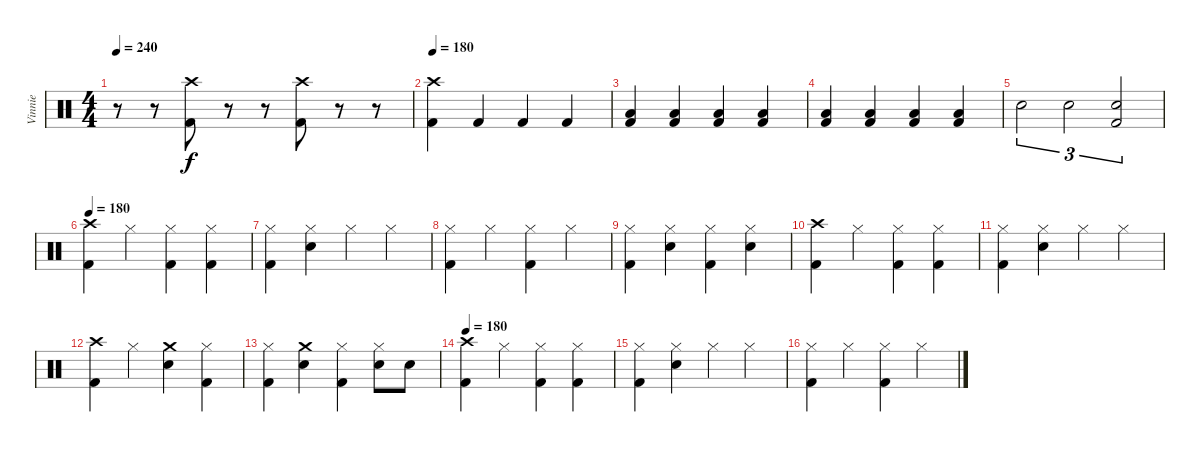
\track ("Vinnie" "Vinnie") {instrument percussion}
\staff {score}
\articulation defaults
\ts (4 4)
\tempo 240
\clef neutral
\ks c
r.8{dy f} r.8 ("Crash high (hit)" "Kick (hit) 2").8 r.8 r.8 ("Crash high (hit)" "Kick (hit) 2").8 r.8 r.8 |
\tempo 180
("Crash high (hit)" "Kick (hit) 2").4 "Kick (hit) 2".4 "Kick (hit) 2".4 "Kick (hit) 2".4 |
("Low Floor Tom (hit)" "Kick (hit) 2").4 ("Low Floor Tom (hit)" "Kick (hit) 2").4 ("Low Floor Tom (hit)" "Kick (hit) 2").4 ("Low Floor Tom (hit)" "Kick (hit) 2").4 |
("Low Floor Tom (hit)" "Kick (hit) 2").4 ("Low Floor Tom (hit)" "Kick (hit) 2").4 ("Low Floor Tom (hit)" "Kick (hit) 2").4 ("Low Floor Tom (hit)" "Kick (hit) 2").4 |
"Electric Snare (hit)".2{tu (3 2)} "Electric Snare (hit)".2{tu (3 2)} ("Electric Snare (hit)" "Kick (hit) 2").2{tu (3 2)} |
\tempo 180
("Crash high (hit)" "Kick (hit) 2").4 "Hi-Hat (closed)".4 ("Hi-Hat (closed)" "Kick (hit) 2").4 ("Hi-Hat (closed)" "Kick (hit) 2").4 |
("Hi-Hat (closed)" "Kick (hit) 2").4 ("Hi-Hat (closed)" "Electric Snare (hit)").4 "Hi-Hat (closed)".4 "Hi-Hat (closed)".4 |
("Hi-Hat (closed)" "Kick (hit) 2").4 "Hi-Hat (closed)".4 ("Hi-Hat (closed)" "Kick (hit) 2").4 "Hi-Hat (closed)".4 |
("Hi-Hat (closed)" "Kick (hit) 2").4 ("Hi-Hat (closed)" "Electric Snare (hit)").4 ("Hi-Hat (closed)" "Kick (hit) 2").4 ("Hi-Hat (closed)" "Electric Snare (hit)").4 |
("Crash high (hit)" "Kick (hit) 2").4 "Hi-Hat (closed)".4 ("Hi-Hat (closed)" "Kick (hit) 2").4 ("Hi-Hat (closed)" "Kick (hit) 2").4 |
("Hi-Hat (closed)" "Kick (hit) 2").4 ("Hi-Hat (closed)" "Electric Snare (hit)").4 "Hi-Hat (closed)".4 "Hi-Hat (closed)".4 |
("Crash high (hit)" "Kick (hit) 2").4 "Hi-Hat (closed)".4 ("Crash medium (hit)" "Electric Snare (hit)").4 ("Hi-Hat (closed)" "Kick (hit) 2").4 |
("Hi-Hat (closed)" "Kick (hit) 2").4 ("Crash medium (hit)" "Electric Snare (hit)").4 ("Hi-Hat (closed)" "Kick (hit) 2").4 ("Hi-Hat (closed)" "Electric Snare (hit)").8 "Electric Snare (hit)".8 |
\tempo 180
("Crash high (hit)" "Kick (hit) 2").4 "Hi-Hat (closed)".4 ("Hi-Hat (closed)" "Kick (hit) 2").4 ("Hi-Hat (closed)" "Kick (hit) 2").4 |
("Hi-Hat (closed)" "Kick (hit) 2").4 ("Hi-Hat (closed)" "Electric Snare (hit)").4 "Hi-Hat (closed)".4 "Hi-Hat (closed)".4 |
("Hi-Hat (closed)" "Kick (hit) 2").4 "Hi-Hat (closed)".4 ("Hi-Hat (closed)" "Kick (hit) 2").4 "Hi-Hat (closed)".4
